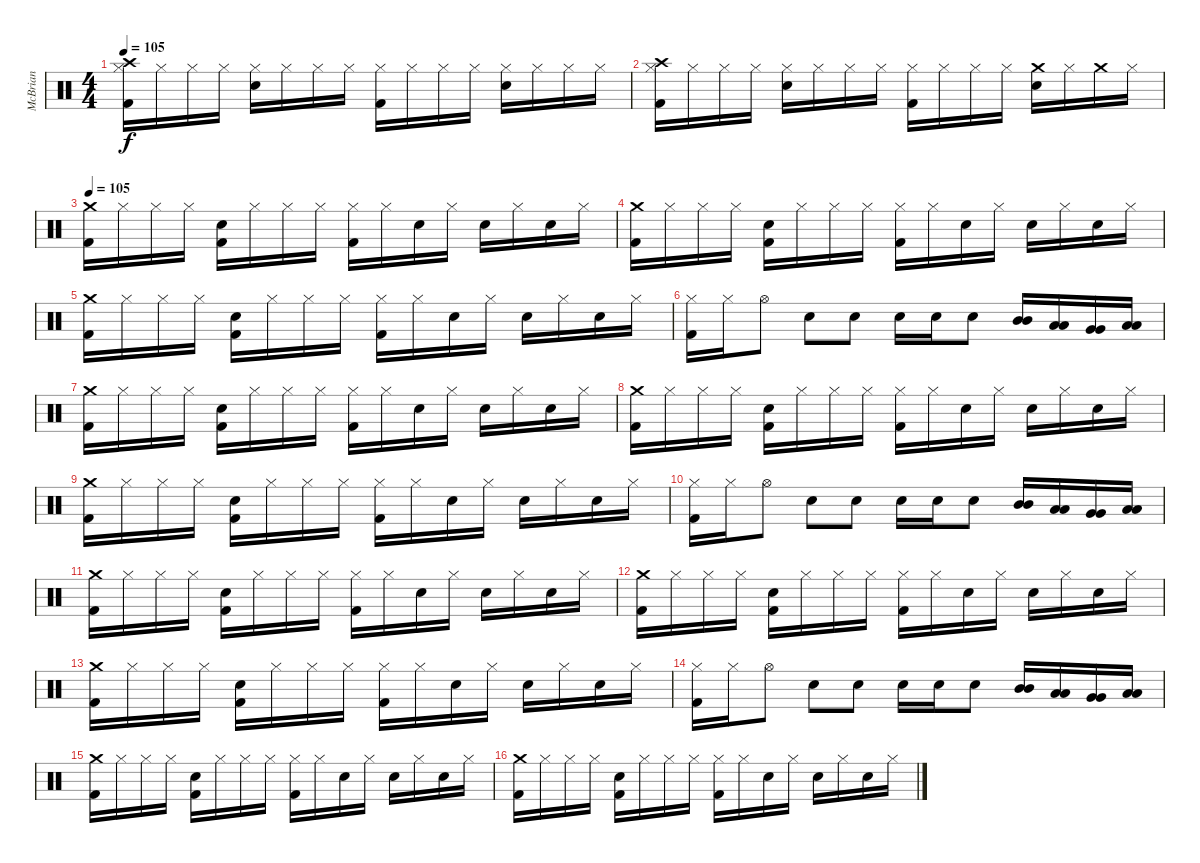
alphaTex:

\track ("McBrian" "McBrian") {instrument percussion}
\staff {score}
\articulation defaults
\ts (4 4)
\tempo 105
\clef neutral
\ks c
("Crash high (hit)" "Hi-Hat (closed)" "Kick (hit) 2").16{dy f} "Hi-Hat (closed)".16 "Hi-Hat (closed)".16 "Hi-Hat (closed)".16 ("Hi-Hat (closed)" "Snare (hit) 2").16 "Hi-Hat (closed)".16 "Hi-Hat (closed)".16 "Hi-Hat (closed)".16 ("Hi-Hat (closed)" "Kick (hit) 2").16 "Hi-Hat (closed)".16 "Hi-Hat (closed)".16 "Hi-Hat (closed)".16 ("Hi-Hat (closed)" "Snare (hit) 2").16 "Hi-Hat (closed)".16 "Hi-Hat (closed)".16 "Hi-Hat (closed)".16 |
("Crash high (hit)" "Hi-Hat (closed)" "Kick (hit) 2").16 "Hi-Hat (closed)".16 "Hi-Hat (closed)".16 "Hi-Hat (closed)".16 ("Hi-Hat (closed)" "Snare (hit) 2").16 "Hi-Hat (closed)".16 "Hi-Hat (closed)".16 "Hi-Hat (closed)".16 ("Hi-Hat (closed)" "Kick (hit) 2").16 "Hi-Hat (closed)".16 "Hi-Hat (closed)".16 "Hi-Hat (closed)".16 ("Crash medium (hit)" "Snare (hit) 2").16 "Hi-Hat (closed)".16 "Crash medium (hit)".16 "Hi-Hat (closed)".16 |
\tempo 105
("Crash medium (hit)" "Kick (hit) 2").16 "Hi-Hat (closed)".16 "Hi-Hat (closed)".16 "Hi-Hat (closed)".16 ("Snare (hit) 2" "Kick (hit) 2").16 "Hi-Hat (closed)".16 "Hi-Hat (closed)".16 "Hi-Hat (closed)".16 ("Hi-Hat (closed)" "Kick (hit) 2").16 "Hi-Hat (closed)".16 "Snare (hit)".16 "Hi-Hat (closed)".16 "Snare (hit) 2".16 "Hi-Hat (closed)".16 "Snare (hit) 2".16 "Hi-Hat (closed)".16 |
("Crash medium (hit)" "Kick (hit) 2").16 "Hi-Hat (closed)".16 "Hi-Hat (closed)".16 "Hi-Hat (closed)".16 ("Snare (hit) 2" "Kick (hit) 2").16 "Hi-Hat (closed)".16 "Hi-Hat (closed)".16 "Hi-Hat (closed)".16 ("Hi-Hat (closed)" "Kick (hit) 2").16 "Hi-Hat (closed)".16 "Snare (hit)".16 "Hi-Hat (closed)".16 "Snare (hit) 2".16 "Hi-Hat (closed)".16 "Snare (hit) 2".16 "Hi-Hat (closed)".16 |
("Crash medium (hit)" "Kick (hit) 2").16 "Hi-Hat (closed)".16 "Hi-Hat (closed)".16 "Hi-Hat (closed)".16 ("Snare (hit) 2" "Kick (hit) 2").16 "Hi-Hat (closed)".16 "Hi-Hat (closed)".16 "Hi-Hat (closed)".16 ("Hi-Hat (closed)" "Kick (hit) 2").16 "Hi-Hat (closed)".16 "Snare (hit)".16 "Hi-Hat (closed)".16 "Snare (hit) 2".16 "Hi-Hat (closed)".16 "Snare (hit) 2".16 "Hi-Hat (closed)".16 |
("Hi-Hat (closed)" "Kick (hit) 2").16 "Hi-Hat (closed)".16 "Hi-Hat (open)".8 "Snare (hit) 2".8 "Snare (hit) 2".8 "Snare (hit) 2".16 "Snare (hit) 2".16 "Snare (hit) 2".8 ("Mid Tom (hit)" "Mid Tom (hit)").16 ("Low Tom (hit)" "Low Tom (hit)").16 ("Very Low Tom (hit)" "Very Low Tom (hit)").16 ("Low Floor Tom (hit)" "Low Floor Tom (hit)").16 |
("Crash medium (hit)" "Kick (hit) 2").16 "Hi-Hat (closed)".16 "Hi-Hat (closed)".16 "Hi-Hat (closed)".16 ("Snare (hit) 2" "Kick (hit) 2").16 "Hi-Hat (closed)".16 "Hi-Hat (closed)".16 "Hi-Hat (closed)".16 ("Hi-Hat (closed)" "Kick (hit) 2").16 "Hi-Hat (closed)".16 "Snare (hit)".16 "Hi-Hat (closed)".16 "Snare (hit) 2".16 "Hi-Hat (closed)".16 "Snare (hit) 2".16 "Hi-Hat (closed)".16 |
("Crash medium (hit)" "Kick (hit) 2").16 "Hi-Hat (closed)".16 "Hi-Hat (closed)".16 "Hi-Hat (closed)".16 ("Snare (hit) 2" "Kick (hit) 2").16 "Hi-Hat (closed)".16 "Hi-Hat (closed)".16 "Hi-Hat (closed)".16 ("Hi-Hat (closed)" "Kick (hit) 2").16 "Hi-Hat (closed)".16 "Snare (hit)".16 "Hi-Hat (closed)".16 "Snare (hit) 2".16 "Hi-Hat (closed)".16 "Snare (hit) 2".16 "Hi-Hat (closed)".16 |
("Crash medium (hit)" "Kick (hit) 2").16 "Hi-Hat (closed)".16 "Hi-Hat (closed)".16 "Hi-Hat (closed)".16 ("Snare (hit) 2" "Kick (hit) 2").16 "Hi-Hat (closed)".16 "Hi-Hat (closed)".16 "Hi-Hat (closed)".16 ("Hi-Hat (closed)" "Kick (hit) 2").16 "Hi-Hat (closed)".16 "Snare (hit)".16 "Hi-Hat (closed)".16 "Snare (hit) 2".16 "Hi-Hat (closed)".16 "Snare (hit) 2".16 "Hi-Hat (closed)".16 |
("Hi-Hat (closed)" "Kick (hit) 2").16 "Hi-Hat (closed)".16 "Hi-Hat (open)".8 "Snare (hit) 2".8 "Snare (hit) 2".8 "Snare (hit) 2".16 "Snare (hit) 2".16 "Snare (hit) 2".8 ("Mid Tom (hit)" "Mid Tom (hit)").16 ("Low Tom (hit)" "Low Tom (hit)").16 ("Very Low Tom (hit)" "Very Low Tom (hit)").16 ("Low Floor Tom (hit)" "Low Floor Tom (hit)").16 |
("Crash medium (hit)" "Kick (hit) 2").16 "Hi-Hat (closed)".16 "Hi-Hat (closed)".16 "Hi-Hat (closed)".16 ("Snare (hit) 2" "Kick (hit) 2").16 "Hi-Hat (closed)".16 "Hi-Hat (closed)".16 "Hi-Hat (closed)".16 ("Hi-Hat (closed)" "Kick (hit) 2").16 "Hi-Hat (closed)".16 "Snare (hit)".16 "Hi-Hat (closed)".16 "Snare (hit) 2".16 "Hi-Hat (closed)".16 "Snare (hit) 2".16 "Hi-Hat (closed)".16 |
("Crash medium (hit)" "Kick (hit) 2").16 "Hi-Hat (closed)".16 "Hi-Hat (closed)".16 "Hi-Hat (closed)".16 ("Snare (hit) 2" "Kick (hit) 2").16 "Hi-Hat (closed)".16 "Hi-Hat (closed)".16 "Hi-Hat (closed)".16 ("Hi-Hat (closed)" "Kick (hit) 2").16 "Hi-Hat (closed)".16 "Snare (hit)".16 "Hi-Hat (closed)".16 "Snare (hit) 2".16 "Hi-Hat (closed)".16 "Snare (hit) 2".16 "Hi-Hat (closed)".16 |
("Crash medium (hit)" "Kick (hit) 2").16 "Hi-Hat (closed)".16 "Hi-Hat (closed)".16 "Hi-Hat (closed)".16 ("Snare (hit) 2" "Kick (hit) 2").16 "Hi-Hat (closed)".16 "Hi-Hat (closed)".16 "Hi-Hat (closed)".16 ("Hi-Hat (closed)" "Kick (hit) 2").16 "Hi-Hat (closed)".16 "Snare (hit)".16 "Hi-Hat (closed)".16 "Snare (hit) 2".16 "Hi-Hat (closed)".16 "Snare (hit) 2".16 "Hi-Hat (closed)".16 |
("Hi-Hat (closed)" "Kick (hit) 2").16 "Hi-Hat (closed)".16 "Hi-Hat (open)".8 "Snare (hit) 2".8 "Snare (hit) 2".8 "Snare (hit) 2".16 "Snare (hit) 2".16 "Snare (hit) 2".8 ("Mid Tom (hit)" "Mid Tom (hit)").16 ("Low Tom (hit)" "Low Tom (hit)").16 ("Very Low Tom (hit)" "Very Low Tom (hit)").16 ("Low Floor Tom (hit)" "Low Floor Tom (hit)").16 |
("Crash medium (hit)" "Kick (hit) 2").16 "Hi-Hat (closed)".16 "Hi-Hat (closed)".16 "Hi-Hat (closed)".16 ("Snare (hit) 2" "Kick (hit) 2").16 "Hi-Hat (closed)".16 "Hi-Hat (closed)".16 "Hi-Hat (closed)".16 ("Hi-Hat (closed)" "Kick (hit) 2").16 "Hi-Hat (closed)".16 "Snare (hit)".16 "Hi-Hat (closed)".16 "Snare (hit) 2".16 "Hi-Hat (closed)".16 "Snare (hit) 2".16 "Hi-Hat (closed)".16 |
("Crash medium (hit)" "Kick (hit) 2").16 "Hi-Hat (closed)".16 "Hi-Hat (closed)".16 "Hi-Hat (closed)".16 ("Snare (hit) 2" "Kick (hit) 2").16 "Hi-Hat (closed)".16 "Hi-Hat (closed)".16 "Hi-Hat (closed)".16 ("Hi-Hat (closed)" "Kick (hit) 2").16 "Hi-Hat (closed)".16 "Snare (hit)".16 "Hi-Hat (closed)".16 "Snare (hit) 2".16 "Hi-Hat (closed)".16 "Snare (hit) 2".16 "Hi-Hat (closed)".16
